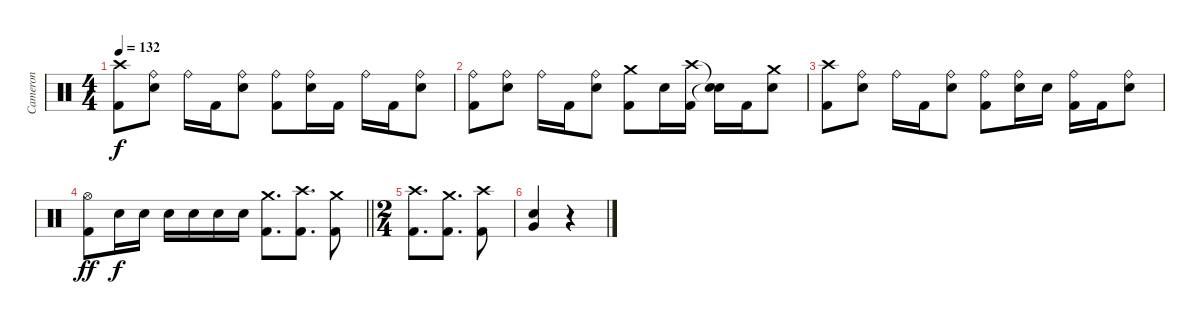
\track ("Cameron" "Cameron") {instrument percussion}
\staff {score}
\articulation defaults
\ts (4 4)
\tempo 132
\clef neutral
\ks c
("Crash high (hit)" "Kick (hit) 2").8{dy f} ("Ride (bell)" "Snare (hit) 2").8 "Ride (bell)".16 "Kick (hit) 2".16 ("Ride (bell)" "Snare (hit) 2").8 ("Ride (bell)" "Kick (hit) 2").8 ("Ride (bell)" "Snare (hit) 2").16 "Kick (hit) 2".16 "Ride (bell)".16 "Kick (hit) 2".16 ("Ride (bell)" "Snare (hit) 2").8 |
("Ride (bell)" "Kick (hit) 2").8 ("Ride (bell)" "Snare (hit) 2").8 "Ride (bell)".16 "Kick (hit) 2".16 ("Ride (bell)" "Snare (hit) 2").8 ("Crash medium (hit)" "Kick (hit) 2").8 "Snare (hit) 2".16 ("Crash high (hit)" "Kick (hit) 2").16 ("Snare (hit)"{t} "Snare (hit)"{t}).16 "Kick (hit) 2".16 ("Crash medium (hit)" "Snare (hit) 2").8 |
("Crash high (hit)" "Kick (hit) 2").8 ("Ride (bell)" "Snare (hit) 2").8 "Ride (bell)".16 "Kick (hit) 2".16 ("Ride (bell)" "Snare (hit) 2").8 ("Ride (bell)" "Kick (hit) 2").8 ("Ride (bell)" "Snare (hit) 2").16 "Snare (hit) 2".16 ("Ride (bell)" "Kick (hit) 2").16 "Kick (hit) 2".16 ("Ride (bell)" "Snare (hit) 2").8 |
\barLineRight lightlight
("Hi-Hat (open)" "Kick (hit) 2").8{dy ff} "Snare (hit) 2".16{dy f} "Snare (hit) 2".16 "Snare (hit) 2".16 "Snare (hit) 2".16 "Snare (hit) 2".16 "Snare (hit) 2".16 ("Crash medium (hit)" "Kick (hit) 2").8{d} ("Crash high (hit)" "Kick (hit) 2").8{d} ("Crash medium (hit)" "Kick (hit) 2").8 |
\ts (2 4)
\section ("" "")
("Crash high (hit)" "Kick (hit) 2").8{d} ("Crash medium (hit)" "Kick (hit) 2").8{d} ("Crash high (hit)" "Kick (hit) 2").8 |
("Snare (hit) 2" "Very Low Tom (hit)").4 r.4
